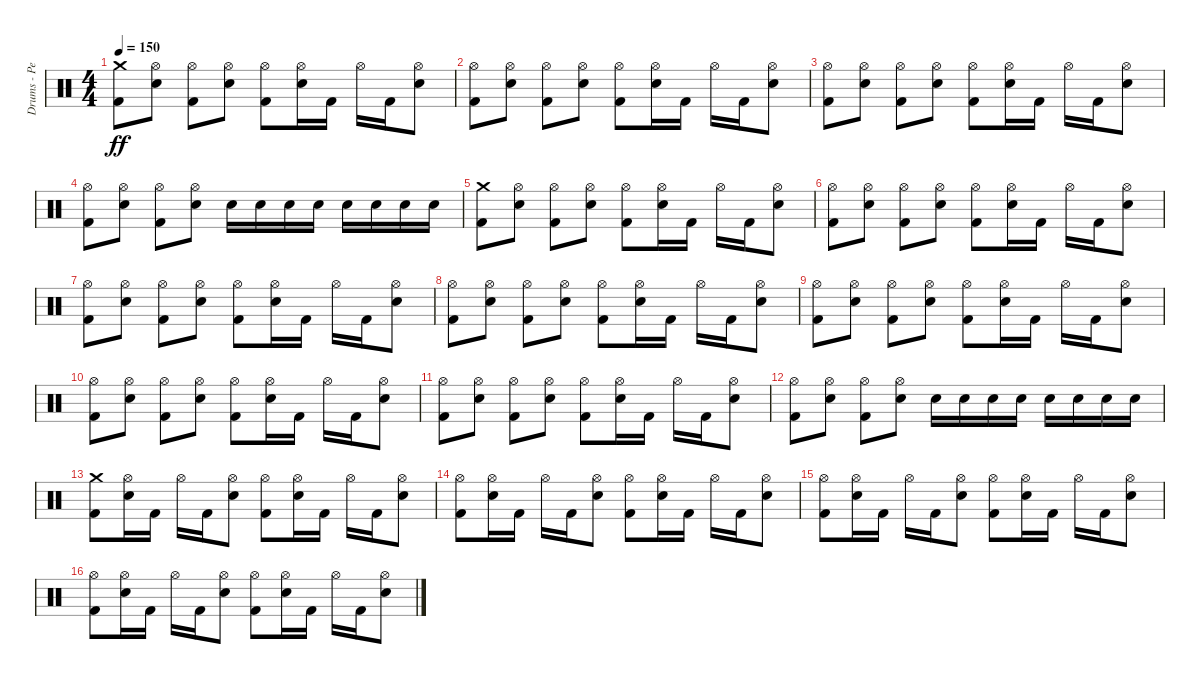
\track ("Drums - Pete Finestone" "Drums - Pe") {instrument percussion}
\staff {score}
\articulation defaults
\ts (4 4)
\tempo 150
\clef neutral
\ks c
("Kick (hit) 2" "Crash medium (hit)").8{dy ff} ("Electric Snare (hit)" "Hi-Hat (open)").8 ("Kick (hit) 2" "Hi-Hat (open)").8 ("Electric Snare (hit)" "Hi-Hat (open)").8 ("Kick (hit) 2" "Hi-Hat (open)").8 ("Electric Snare (hit)" "Hi-Hat (open)").16 "Kick (hit) 2".16 "Hi-Hat (open)".16 "Kick (hit) 2".16 ("Electric Snare (hit)" "Hi-Hat (open)").8 |
("Kick (hit) 2" "Hi-Hat (open)").8 ("Electric Snare (hit)" "Hi-Hat (open)").8 ("Kick (hit) 2" "Hi-Hat (open)").8 ("Electric Snare (hit)" "Hi-Hat (open)").8 ("Kick (hit) 2" "Hi-Hat (open)").8 ("Electric Snare (hit)" "Hi-Hat (open)").16 "Kick (hit) 2".16 "Hi-Hat (open)".16 "Kick (hit) 2".16 ("Electric Snare (hit)" "Hi-Hat (open)").8 |
("Kick (hit) 2" "Hi-Hat (open)").8 ("Electric Snare (hit)" "Hi-Hat (open)").8 ("Kick (hit) 2" "Hi-Hat (open)").8 ("Electric Snare (hit)" "Hi-Hat (open)").8 ("Kick (hit) 2" "Hi-Hat (open)").8 ("Electric Snare (hit)" "Hi-Hat (open)").16 "Kick (hit) 2".16 "Hi-Hat (open)".16 "Kick (hit) 2".16 ("Electric Snare (hit)" "Hi-Hat (open)").8 |
("Kick (hit) 2" "Hi-Hat (open)").8 ("Electric Snare (hit)" "Hi-Hat (open)").8 ("Hi-Hat (open)" "Kick (hit) 2").8 ("Electric Snare (hit)" "Hi-Hat (open)").8 "Electric Snare (hit)".16 "Electric Snare (hit)".16 "Electric Snare (hit)".16 "Electric Snare (hit)".16 "Electric Snare (hit)".16 "Electric Snare (hit)".16 "Electric Snare (hit)".16 "Electric Snare (hit)".16 |
("Kick (hit) 2" "Crash medium (hit)").8 ("Electric Snare (hit)" "Hi-Hat (open)").8 ("Kick (hit) 2" "Hi-Hat (open)").8 ("Electric Snare (hit)" "Hi-Hat (open)").8 ("Kick (hit) 2" "Hi-Hat (open)").8 ("Electric Snare (hit)" "Hi-Hat (open)").16 "Kick (hit) 2".16 "Hi-Hat (open)".16 "Kick (hit) 2".16 ("Electric Snare (hit)" "Hi-Hat (open)").8 |
("Kick (hit) 2" "Hi-Hat (open)").8 ("Electric Snare (hit)" "Hi-Hat (open)").8 ("Kick (hit) 2" "Hi-Hat (open)").8 ("Electric Snare (hit)" "Hi-Hat (open)").8 ("Kick (hit) 2" "Hi-Hat (open)").8 ("Electric Snare (hit)" "Hi-Hat (open)").16 "Kick (hit) 2".16 "Hi-Hat (open)".16 "Kick (hit) 2".16 ("Electric Snare (hit)" "Hi-Hat (open)").8 |
("Kick (hit) 2" "Hi-Hat (open)").8 ("Electric Snare (hit)" "Hi-Hat (open)").8 ("Kick (hit) 2" "Hi-Hat (open)").8 ("Electric Snare (hit)" "Hi-Hat (open)").8 ("Kick (hit) 2" "Hi-Hat (open)").8 ("Electric Snare (hit)" "Hi-Hat (open)").16 "Kick (hit) 2".16 "Hi-Hat (open)".16 "Kick (hit) 2".16 ("Electric Snare (hit)" "Hi-Hat (open)").8 |
("Kick (hit) 2" "Hi-Hat (open)").8 ("Electric Snare (hit)" "Hi-Hat (open)").8 ("Hi-Hat (open)" "Kick (hit) 2").8 ("Electric Snare (hit)" "Hi-Hat (open)").8 ("Kick (hit) 2" "Hi-Hat (open)").8 ("Electric Snare (hit)" "Hi-Hat (open)").16 "Kick (hit) 2".16 "Hi-Hat (open)".16 "Kick (hit) 2".16 ("Electric Snare (hit)" "Hi-Hat (open)").8 |
("Hi-Hat (open)" "Kick (hit) 2").8 ("Hi-Hat (open)" "Electric Snare (hit)").8 ("Hi-Hat (open)" "Kick (hit) 2").8 ("Hi-Hat (open)" "Electric Snare (hit)").8 ("Kick (hit) 2" "Hi-Hat (open)").8 ("Electric Snare (hit)" "Hi-Hat (open)").16 "Kick (hit) 2".16 "Hi-Hat (open)".16 "Kick (hit) 2".16 ("Electric Snare (hit)" "Hi-Hat (open)").8 |
("Hi-Hat (open)" "Kick (hit) 2").8 ("Hi-Hat (open)" "Electric Snare (hit)").8 ("Hi-Hat (open)" "Kick (hit) 2").8 ("Hi-Hat (open)" "Electric Snare (hit)").8 ("Kick (hit) 2" "Hi-Hat (open)").8 ("Electric Snare (hit)" "Hi-Hat (open)").16 "Kick (hit) 2".16 "Hi-Hat (open)".16 "Kick (hit) 2".16 ("Electric Snare (hit)" "Hi-Hat (open)").8 |
("Hi-Hat (open)" "Kick (hit) 2").8 ("Hi-Hat (open)" "Electric Snare (hit)").8 ("Hi-Hat (open)" "Kick (hit) 2").8 ("Hi-Hat (open)" "Electric Snare (hit)").8 ("Hi-Hat (open)" "Kick (hit) 2").8 ("Electric Snare (hit)" "Hi-Hat (open)").16 "Kick (hit) 2".16 "Hi-Hat (open)".16 "Kick (hit) 2".16 ("Electric Snare (hit)" "Hi-Hat (open)").8 |
("Hi-Hat (open)" "Kick (hit) 2").8 ("Hi-Hat (open)" "Electric Snare (hit)").8 ("Hi-Hat (open)" "Kick (hit) 2").8 ("Hi-Hat (open)" "Electric Snare (hit)").8 "Electric Snare (hit)".16 "Electric Snare (hit)".16 "Electric Snare (hit)".16 "Electric Snare (hit)".16 "Electric Snare (hit)".16 "Electric Snare (hit)".16 "Electric Snare (hit)".16 "Electric Snare (hit)".16 |
("Kick (hit) 2" "Crash medium (hit)").8 ("Electric Snare (hit)" "Hi-Hat (open)").16 "Kick (hit) 2".16 "Hi-Hat (open)".16 "Kick (hit) 2".16 ("Electric Snare (hit)" "Hi-Hat (open)").8 ("Kick (hit) 2" "Hi-Hat (open)").8 ("Electric Snare (hit)" "Hi-Hat (open)").16 "Kick (hit) 2".16 "Hi-Hat (open)".16 "Kick (hit) 2".16 ("Electric Snare (hit)" "Hi-Hat (open)").8 |
("Kick (hit) 2" "Hi-Hat (open)").8 ("Electric Snare (hit)" "Hi-Hat (open)").16 "Kick (hit) 2".16 "Hi-Hat (open)".16 "Kick (hit) 2".16 ("Electric Snare (hit)" "Hi-Hat (open)").8 ("Kick (hit) 2" "Hi-Hat (open)").8 ("Electric Snare (hit)" "Hi-Hat (open)").16 "Kick (hit) 2".16 "Hi-Hat (open)".16 "Kick (hit) 2".16 ("Electric Snare (hit)" "Hi-Hat (open)").8 |
("Kick (hit) 2" "Hi-Hat (open)").8 ("Electric Snare (hit)" "Hi-Hat (open)").16 "Kick (hit) 2".16 "Hi-Hat (open)".16 "Kick (hit) 2".16 ("Electric Snare (hit)" "Hi-Hat (open)").8 ("Kick (hit) 2" "Hi-Hat (open)").8 ("Electric Snare (hit)" "Hi-Hat (open)").16 "Kick (hit) 2".16 "Hi-Hat (open)".16 "Kick (hit) 2".16 ("Electric Snare (hit)" "Hi-Hat (open)").8 |
("Kick (hit) 2" "Hi-Hat (open)").8 ("Electric Snare (hit)" "Hi-Hat (open)").16 "Kick (hit) 2".16 "Hi-Hat (open)".16 "Kick (hit) 2".16 ("Electric Snare (hit)" "Hi-Hat (open)").8 ("Kick (hit) 2" "Hi-Hat (open)").8 ("Electric Snare (hit)" "Hi-Hat (open)").16 "Kick (hit) 2".16 "Hi-Hat (open)".16 "Kick (hit) 2".16 ("Electric Snare (hit)" "Hi-Hat (open)").8
